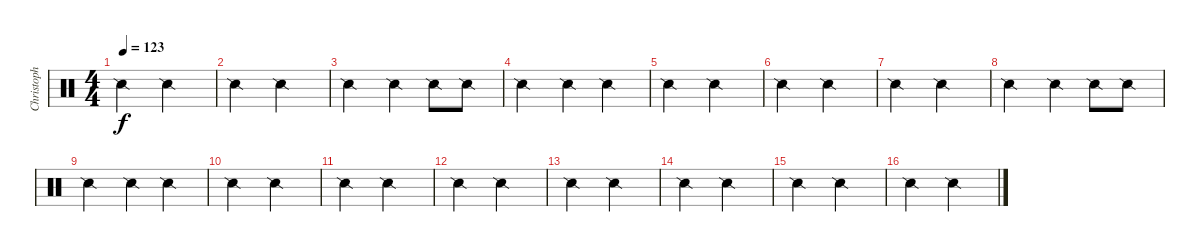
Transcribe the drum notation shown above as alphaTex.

\track ("Christoph DOOM Schneider" "Christoph ") {instrument percussion}
\staff {score}
\articulation defaults
\ts (4 4)
\tempo 123
\clef neutral
\ks c "Snare (side stick) 2".2{dy f} "Snare (side stick) 2".2
|
"Snare (side stick) 2".2 "Snare (side stick) 2".2 |
"Snare (side stick) 2".2 "Snare (side stick) 2".4 "Snare (side stick) 2".8 "Snare (side stick) 2".8 |
"Snare (side stick) 2".2 "Snare (side stick) 2".4 "Snare (side stick) 2".4 |
"Snare (side stick) 2".2 "Snare (side stick) 2".2 |
"Snare (side stick) 2".2 "Snare (side stick) 2".2 |
"Snare (side stick) 2".2 "Snare (side stick) 2".2 |
"Snare (side stick) 2".2 "Snare (side stick) 2".4 "Snare (side stick) 2".8 "Snare (side stick) 2".8 |
"Snare (side stick) 2".2 "Snare (side stick) 2".4 "Snare (side stick) 2".4 |
"Snare (side stick) 2".2 "Snare (side stick) 2".2 |
"Snare (side stick) 2".2 "Snare (side stick) 2".2 |
"Snare (side stick) 2".2 "Snare (side stick) 2".2 |
"Snare (side stick) 2".2 "Snare (side stick) 2".2 |
"Snare (side stick) 2".2 "Snare (side stick) 2".2 |
"Snare (side stick) 2".2 "Snare (side stick) 2".2 |
"Snare (side stick) 2".2 "Snare (side stick) 2".2
